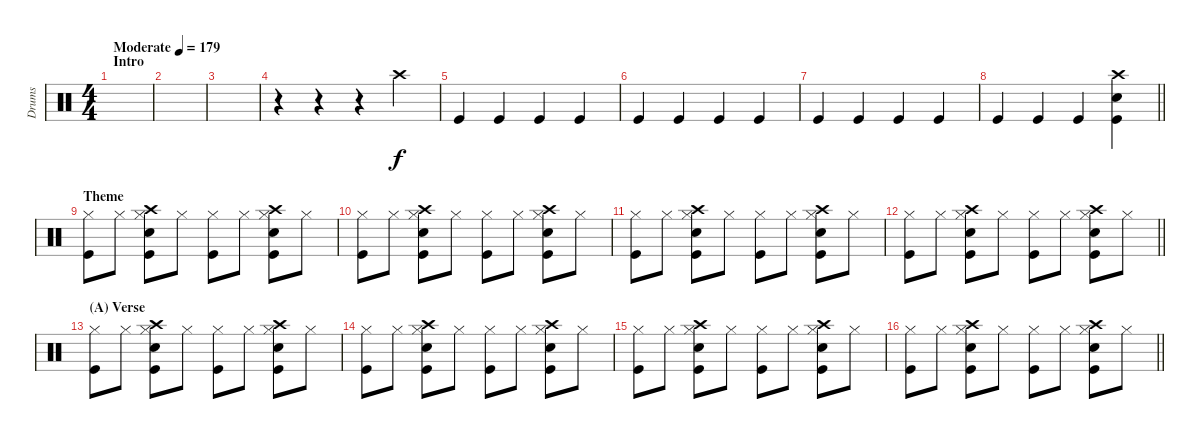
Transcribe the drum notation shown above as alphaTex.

\track ("Drums" "Drums") {instrument percussion}
\staff {score}
\articulation defaults
\ts (4 4)
\section ("" "Intro")
\tempo (179 "Moderate")
\clef neutral
\ks c
|
|
|
r.4 r.4 r.4 "Crash high (hit)".4 |
"Kick (hit)".4 "Kick (hit)".4 "Kick (hit)".4 "Kick (hit)".4 |
"Kick (hit)".4 "Kick (hit)".4 "Kick (hit)".4 "Kick (hit)".4 |
"Kick (hit)".4 "Kick (hit)".4 "Kick (hit)".4 "Kick (hit)".4 |
\barLineRight lightlight "Kick (hit)".4 "Kick (hit)".4 "Kick (hit)".4
("Crash high (hit)" "Snare (hit) 2" "Kick (hit)").4 |
\section ("" "Theme")
("Hi-Hat (closed)" "Kick (hit)").8 "Hi-Hat (closed)".8 ("Crash high (hit)" "Hi-Hat (closed)" "Snare (hit) 2" "Kick (hit)").8 "Hi-Hat (closed)".8 ("Hi-Hat (closed)" "Kick (hit)").8 "Hi-Hat (closed)".8 ("Crash high (hit)" "Hi-Hat (closed)" "Snare (hit) 2" "Kick (hit)").8 "Hi-Hat (closed)".8 |
("Hi-Hat (closed)" "Kick (hit)").8 "Hi-Hat (closed)".8 ("Crash high (hit)" "Hi-Hat (closed)" "Snare (hit) 2" "Kick (hit)").8 "Hi-Hat (closed)".8 ("Hi-Hat (closed)" "Kick (hit)").8 "Hi-Hat (closed)".8 ("Crash high (hit)" "Hi-Hat (closed)" "Snare (hit) 2" "Kick (hit)").8 "Hi-Hat (closed)".8 |
("Hi-Hat (closed)" "Kick (hit)").8 "Hi-Hat (closed)".8 ("Crash high (hit)" "Hi-Hat (closed)" "Snare (hit) 2" "Kick (hit)").8 "Hi-Hat (closed)".8 ("Hi-Hat (closed)" "Kick (hit)").8 "Hi-Hat (closed)".8 ("Crash high (hit)" "Hi-Hat (closed)" "Snare (hit) 2" "Kick (hit)").8 "Hi-Hat (closed)".8 |
\barLineRight lightlight
("Hi-Hat (closed)" "Kick (hit)").8 "Hi-Hat (closed)".8 ("Crash high (hit)" "Hi-Hat (closed)" "Snare (hit) 2" "Kick (hit)").8 "Hi-Hat (closed)".8 ("Hi-Hat (closed)" "Kick (hit)").8 "Hi-Hat (closed)".8 ("Crash high (hit)" "Hi-Hat (closed)" "Snare (hit) 2" "Kick (hit)").8 "Hi-Hat (closed)".8 |
\section ("" "(A) Verse")
("Hi-Hat (closed)" "Kick (hit)").8 "Hi-Hat (closed)".8 ("Crash high (hit)" "Hi-Hat (closed)" "Snare (hit) 2" "Kick (hit)").8 "Hi-Hat (closed)".8 ("Hi-Hat (closed)" "Kick (hit)").8 "Hi-Hat (closed)".8 ("Crash high (hit)" "Hi-Hat (closed)" "Snare (hit) 2" "Kick (hit)").8 "Hi-Hat (closed)".8 |
("Hi-Hat (closed)" "Kick (hit)").8 "Hi-Hat (closed)".8 ("Crash high (hit)" "Hi-Hat (closed)" "Snare (hit) 2" "Kick (hit)").8 "Hi-Hat (closed)".8 ("Hi-Hat (closed)" "Kick (hit)").8 "Hi-Hat (closed)".8 ("Crash high (hit)" "Hi-Hat (closed)" "Snare (hit) 2" "Kick (hit)").8 "Hi-Hat (closed)".8 |
("Hi-Hat (closed)" "Kick (hit)").8 "Hi-Hat (closed)".8 ("Crash high (hit)" "Hi-Hat (closed)" "Snare (hit) 2" "Kick (hit)").8 "Hi-Hat (closed)".8 ("Hi-Hat (closed)" "Kick (hit)").8 "Hi-Hat (closed)".8 ("Crash high (hit)" "Hi-Hat (closed)" "Snare (hit) 2" "Kick (hit)").8 "Hi-Hat (closed)".8 |
\barLineRight lightlight
("Hi-Hat (closed)" "Kick (hit)").8 "Hi-Hat (closed)".8 ("Crash high (hit)" "Hi-Hat (closed)" "Snare (hit) 2" "Kick (hit)").8 "Hi-Hat (closed)".8 ("Hi-Hat (closed)" "Kick (hit)").8 "Hi-Hat (closed)".8 ("Crash high (hit)" "Hi-Hat (closed)" "Snare (hit) 2" "Kick (hit)").8 "Hi-Hat (closed)".8
